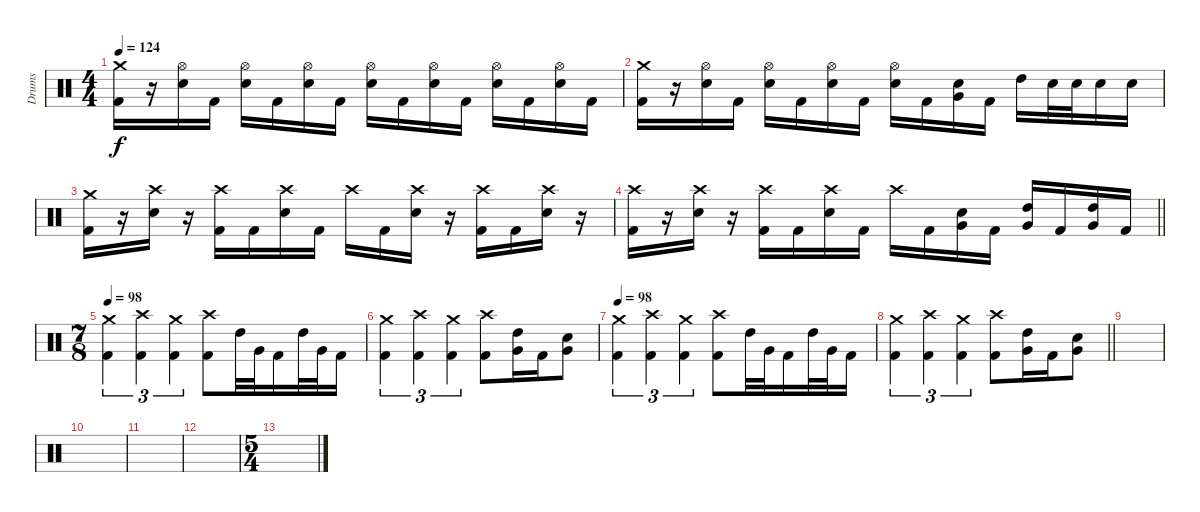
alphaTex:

\track ("Drums" "Drums") {instrument percussion}
\staff {score}
\articulation defaults
\ts (4 4)
\tempo 124
\clef neutral
\ks c
("Crash medium (hit)" "Kick (hit) 2").16{dy f} r.16 ("Hi-Hat (open)" "Snare (hit) 2").16 "Kick (hit) 2".16 ("Hi-Hat (open)" "Snare (hit) 2").16 "Kick (hit) 2".16 ("Hi-Hat (open)" "Snare (hit) 2").16 "Kick (hit) 2".16 ("Hi-Hat (open)" "Snare (hit) 2").16 "Kick (hit) 2".16 ("Hi-Hat (open)" "Snare (hit) 2").16 "Kick (hit) 2".16 ("Hi-Hat (open)" "Snare (hit) 2").16 "Kick (hit) 2".16 ("Hi-Hat (open)" "Snare (hit) 2").16 "Kick (hit) 2".16 |
("Crash medium (hit)" "Kick (hit) 2").16 r.16 ("Hi-Hat (open)" "Snare (hit) 2").16 "Kick (hit) 2".16 ("Hi-Hat (open)" "Snare (hit) 2").16 "Kick (hit) 2".16 ("Hi-Hat (open)" "Snare (hit) 2").16 "Kick (hit) 2".16 ("Hi-Hat (open)" "Snare (hit) 2").16 "Kick (hit) 2".16 ("Snare (hit) 2" "Very Low Tom (hit)").16 "Kick (hit) 2".16 "High Tom (hit)".16 "Snare (hit) 2".32 "Snare (hit) 2".32 "Snare (hit) 2".16 "Snare (hit) 2".16 |
("Crash medium (hit)" "Kick (hit) 2").16 r.16 ("Crash high (hit)" "Snare (hit) 2").16 r.16 ("Crash high (hit)" "Kick (hit) 2").16 "Kick (hit) 2".16 ("Crash high (hit)" "Snare (hit) 2").16 "Kick (hit) 2".16 "Crash high (hit)".16 "Kick (hit) 2".16 ("Crash high (hit)" "Snare (hit) 2").16 r.16 ("Crash high (hit)" "Kick (hit) 2").16 "Kick (hit) 2".16 ("Crash high (hit)" "Snare (hit) 2").16 r.16 |
\barLineRight lightlight
("Crash high (hit)" "Kick (hit) 2").16 r.16 ("Crash high (hit)" "Snare (hit) 2").16 r.16 ("Crash high (hit)" "Kick (hit) 2").16 "Kick (hit) 2".16 ("Crash high (hit)" "Snare (hit) 2").16 "Kick (hit) 2".16 "Crash high (hit)".16 "Kick (hit) 2".16 ("Snare (hit) 2" "Very Low Tom (hit)").16 "Kick (hit) 2".16 ("High Tom (hit)" "Very Low Tom (hit)").16 "Kick (hit) 2".16 ("High Tom (hit)" "Very Low Tom (hit)").16 "Kick (hit) 2".16 |
\ts (7 8)
\section ("" "")
\tempo 98
("Crash medium (hit)" "Kick (hit) 2").4{tu (3 2)} ("Crash high (hit)" "Kick (hit) 2").4{tu (3 2)} ("Crash medium (hit)" "Kick (hit) 2").4{tu (3 2)} ("Crash high (hit)" "Kick (hit) 2").8 "High Tom (hit)".32 "Very Low Tom (hit)".32 "Kick (hit) 2".16 "High Tom (hit)".32 "Very Low Tom (hit)".32 "Kick (hit) 2".16 |
("Crash medium (hit)" "Kick (hit) 2").4{tu (3 2)} ("Crash high (hit)" "Kick (hit) 2").4{tu (3 2)} ("Crash medium (hit)" "Kick (hit) 2").4{tu (3 2)} ("Crash high (hit)" "Kick (hit) 2").8 ("High Tom (hit)" "Very Low Tom (hit)").16 "Kick (hit) 2".16 ("Snare (hit) 2" "Very Low Tom (hit)").8 |
\tempo 98
("Crash medium (hit)" "Kick (hit) 2").4{tu (3 2)} ("Crash high (hit)" "Kick (hit) 2").4{tu (3 2)} ("Crash medium (hit)" "Kick (hit) 2").4{tu (3 2)} ("Crash high (hit)" "Kick (hit) 2").8 "High Tom (hit)".32 "Very Low Tom (hit)".32 "Kick (hit) 2".16 "High Tom (hit)".32 "Very Low Tom (hit)".32 "Kick (hit) 2".16 |
\barLineRight lightlight
("Crash medium (hit)" "Kick (hit) 2").4{tu (3 2)} ("Crash high (hit)" "Kick (hit) 2").4{tu (3 2)} ("Crash medium (hit)" "Kick (hit) 2").4{tu (3 2)} ("Crash high (hit)" "Kick (hit) 2").8 ("High Tom (hit)" "Very Low Tom (hit)").16 "Kick (hit) 2".16 ("Snare (hit) 2" "Very Low Tom (hit)").8 |
|
|
|
|
\ts (5 4)
